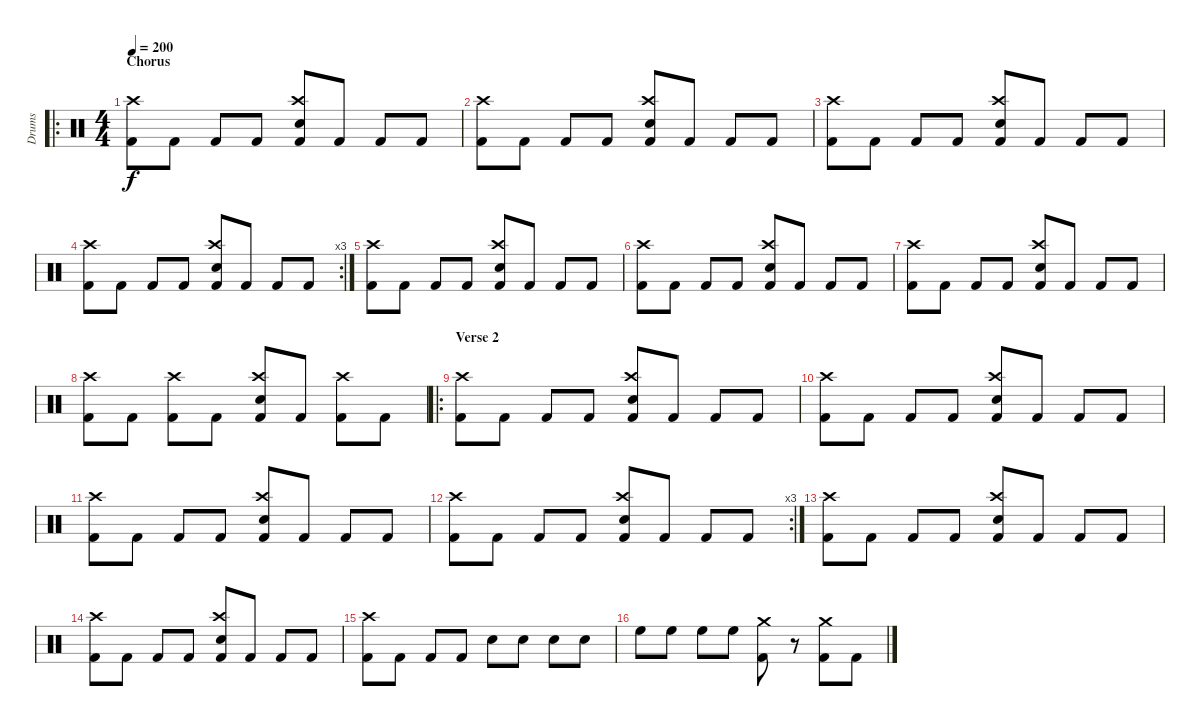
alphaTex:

\track ("Drums" "Drums") {instrument percussion}
\staff {score}
\articulation defaults
\ro
\ts (4 4)
\section ("" "Chorus")
\tempo 200
\clef neutral
\ks c
("Kick (hit) 2" "Crash high (hit)").8{dy f} "Kick (hit) 2".8 "Kick (hit) 2".8 "Kick (hit) 2".8 ("Kick (hit) 2" "Crash high (hit)" "Electric Snare (hit)").8 "Kick (hit) 2".8 "Kick (hit) 2".8 "Kick (hit) 2".8 |
("Kick (hit) 2" "Crash high (hit)").8 "Kick (hit) 2".8 "Kick (hit) 2".8 "Kick (hit) 2".8 ("Kick (hit) 2" "Crash high (hit)" "Electric Snare (hit)").8 "Kick (hit) 2".8 "Kick (hit) 2".8 "Kick (hit) 2".8 |
("Kick (hit) 2" "Crash high (hit)").8 "Kick (hit) 2".8 "Kick (hit) 2".8 "Kick (hit) 2".8 ("Kick (hit) 2" "Crash high (hit)" "Electric Snare (hit)").8 "Kick (hit) 2".8 "Kick (hit) 2".8 "Kick (hit) 2".8 |
\rc 3
("Kick (hit) 2" "Crash high (hit)").8 "Kick (hit) 2".8 "Kick (hit) 2".8 "Kick (hit) 2".8 ("Kick (hit) 2" "Crash high (hit)" "Electric Snare (hit)").8 "Kick (hit) 2".8 "Kick (hit) 2".8 "Kick (hit) 2".8 |
("Kick (hit) 2" "Crash high (hit)").8 "Kick (hit) 2".8 "Kick (hit) 2".8 "Kick (hit) 2".8 ("Kick (hit) 2" "Crash high (hit)" "Electric Snare (hit)").8 "Kick (hit) 2".8 "Kick (hit) 2".8 "Kick (hit) 2".8 |
("Kick (hit) 2" "Crash high (hit)").8 "Kick (hit) 2".8 "Kick (hit) 2".8 "Kick (hit) 2".8 ("Kick (hit) 2" "Crash high (hit)" "Electric Snare (hit)").8 "Kick (hit) 2".8 "Kick (hit) 2".8 "Kick (hit) 2".8 |
("Kick (hit) 2" "Crash high (hit)").8 "Kick (hit) 2".8 "Kick (hit) 2".8 "Kick (hit) 2".8 ("Kick (hit) 2" "Crash high (hit)" "Electric Snare (hit)").8 "Kick (hit) 2".8 "Kick (hit) 2".8 "Kick (hit) 2".8 |
("Kick (hit) 2" "Crash high (hit)").8 "Kick (hit) 2".8 ("Kick (hit) 2" "Crash high (hit)").8 "Kick (hit) 2".8 ("Kick (hit) 2" "Crash high (hit)" "Electric Snare (hit)").8 "Kick (hit) 2".8 ("Kick (hit) 2" "Crash high (hit)").8 "Kick (hit) 2".8 |
\ro
\section ("" "Verse 2")
("Kick (hit) 2" "Crash high (hit)").8 "Kick (hit) 2".8 "Kick (hit) 2".8 "Kick (hit) 2".8 ("Kick (hit) 2" "Crash high (hit)" "Electric Snare (hit)").8 "Kick (hit) 2".8 "Kick (hit) 2".8 "Kick (hit) 2".8 |
("Kick (hit) 2" "Crash high (hit)").8 "Kick (hit) 2".8 "Kick (hit) 2".8 "Kick (hit) 2".8 ("Kick (hit) 2" "Crash high (hit)" "Electric Snare (hit)").8 "Kick (hit) 2".8 "Kick (hit) 2".8 "Kick (hit) 2".8 |
("Kick (hit) 2" "Crash high (hit)").8 "Kick (hit) 2".8 "Kick (hit) 2".8 "Kick (hit) 2".8 ("Kick (hit) 2" "Crash high (hit)" "Electric Snare (hit)").8 "Kick (hit) 2".8 "Kick (hit) 2".8 "Kick (hit) 2".8 |
\rc 3
("Kick (hit) 2" "Crash high (hit)").8 "Kick (hit) 2".8 "Kick (hit) 2".8 "Kick (hit) 2".8 ("Kick (hit) 2" "Crash high (hit)" "Electric Snare (hit)").8 "Kick (hit) 2".8 "Kick (hit) 2".8 "Kick (hit) 2".8 |
("Kick (hit) 2" "Crash high (hit)").8 "Kick (hit) 2".8 "Kick (hit) 2".8 "Kick (hit) 2".8 ("Kick (hit) 2" "Crash high (hit)" "Electric Snare (hit)").8 "Kick (hit) 2".8 "Kick (hit) 2".8 "Kick (hit) 2".8 |
("Kick (hit) 2" "Crash high (hit)").8 "Kick (hit) 2".8 "Kick (hit) 2".8 "Kick (hit) 2".8 ("Kick (hit) 2" "Crash high (hit)" "Electric Snare (hit)").8 "Kick (hit) 2".8 "Kick (hit) 2".8 "Kick (hit) 2".8 |
("Kick (hit) 2" "Crash high (hit)").8 "Kick (hit) 2".8 "Kick (hit) 2".8 "Kick (hit) 2".8 "Electric Snare (hit)".8 "Electric Snare (hit)".8 "Electric Snare (hit)".8 "Electric Snare (hit)".8 |
"High Floor Tom (hit)".8 "High Floor Tom (hit)".8 "High Floor Tom (hit)".8 "High Floor Tom (hit)".8 ("Kick (hit) 2" "Crash medium (hit)").8 r.8 ("Kick (hit) 2" "Crash medium (hit)").8 "Kick (hit) 2".8
